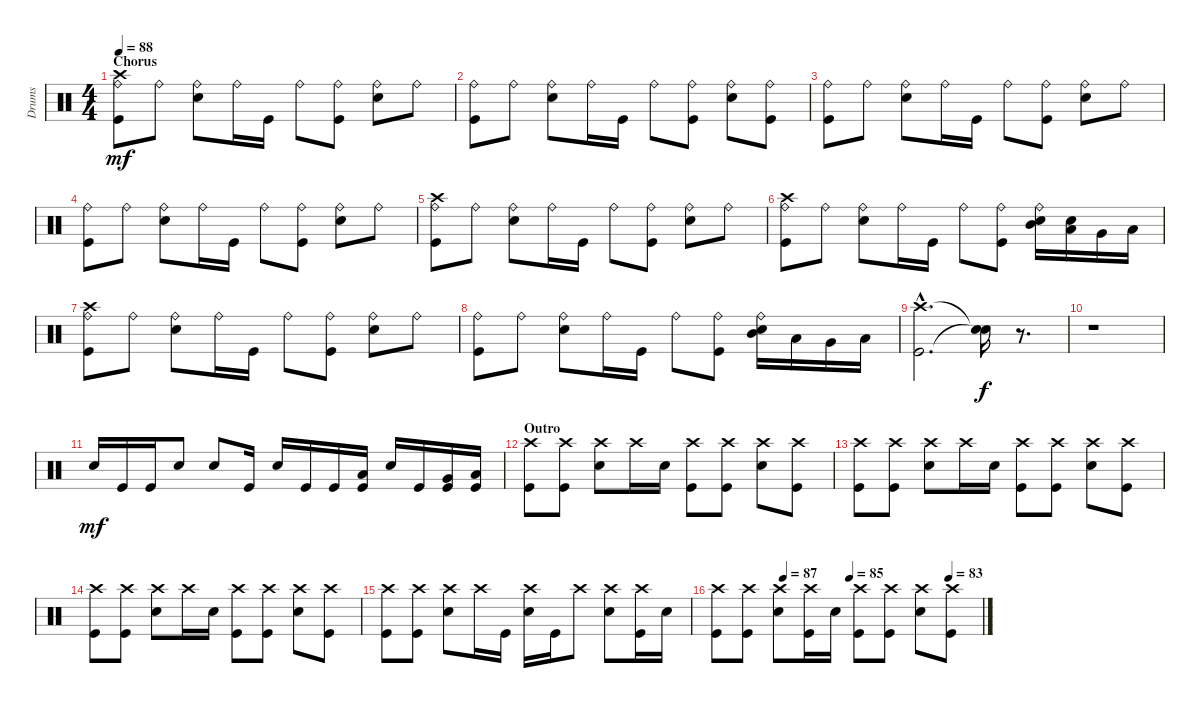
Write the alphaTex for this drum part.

\track ("Drums" "Drums") {instrument percussion}
\staff {score}
\articulation defaults
\ts (4 4)
\section ("" "Chorus")
\tempo 88
\clef neutral
\ks c
("Kick (hit)" "Crash high (hit)" "Ride (bell)").8{dy mf} "Ride (bell)".8 ("Electric Snare (hit)" "Ride (bell)").8 "Ride (bell)".16 "Kick (hit)".16 "Ride (bell)".8 ("Kick (hit)" "Ride (bell)").8 ("Electric Snare (hit)" "Ride (bell)").8 "Ride (bell)".8 |
("Ride (bell)" "Kick (hit)").8 "Ride (bell)".8 ("Electric Snare (hit)" "Ride (bell)").8 "Ride (bell)".16 "Kick (hit)".16 "Ride (bell)".8 ("Ride (bell)" "Kick (hit)").8 ("Ride (bell)" "Electric Snare (hit)").8 ("Ride (bell)" "Kick (hit)").8 |
("Kick (hit)" "Ride (bell)").8 "Ride (bell)".8 ("Electric Snare (hit)" "Ride (bell)").8 "Ride (bell)".16 "Kick (hit)".16 "Ride (bell)".8 ("Kick (hit)" "Ride (bell)").8 ("Ride (bell)" "Electric Snare (hit)").8 "Ride (bell)".8 |
("Ride (bell)" "Kick (hit)").8 "Ride (bell)".8 ("Electric Snare (hit)" "Ride (bell)").8 "Ride (bell)".16 "Kick (hit)".16 "Ride (bell)".8 ("Kick (hit)" "Ride (bell)").8 ("Electric Snare (hit)" "Ride (bell)").8 "Ride (bell)".8 |
("Crash high (hit)" "Ride (bell)" "Kick (hit)").8 "Ride (bell)".8 ("Electric Snare (hit)" "Ride (bell)").8 "Ride (bell)".16 "Kick (hit)".16 "Ride (bell)".8 ("Ride (bell)" "Kick (hit)").8 ("Ride (bell)" "Electric Snare (hit)").8 "Ride (bell)".8 |
("Crash high (hit)" "Kick (hit)" "Ride (bell)").8 "Ride (bell)".8 ("Electric Snare (hit)" "Ride (bell)").8 "Ride (bell)".16 "Kick (hit)".16 "Ride (bell)".8 ("Ride (bell)" "Kick (hit)").8 ("Mid Tom (hit)" "Electric Snare (hit)" "Ride (bell)").16 ("Electric Snare (hit)" "Low Tom (hit)").16 "Very Low Tom (hit)".16 "Low Floor Tom (hit)".16 |
("Kick (hit)" "Ride (bell)" "Crash high (hit)").8 "Ride (bell)".8 ("Ride (bell)" "Electric Snare (hit)").8 "Ride (bell)".16 "Kick (hit)".16 "Ride (bell)".8 ("Ride (bell)" "Kick (hit)").8 ("Ride (bell)" "Electric Snare (hit)").8 "Ride (bell)".8 |
("Ride (bell)" "Kick (hit)").8 "Ride (bell)".8 ("Electric Snare (hit)" "Ride (bell)").8 "Ride (bell)".16 "Kick (hit)".16 "Ride (bell)".8 ("Ride (bell)" "Kick (hit)").8 ("Ride (bell)" "Electric Snare (hit)" "Mid Tom (hit)").16 "Low Tom (hit)".16 "Very Low Tom (hit)".16 "Low Floor Tom (hit)".16 |
("Crash high (hit)"{hac} "Kick (hit)"{hac}).2{d} ("Snare (hit)"{t} "Snare (hit)"{t}).16{dy f} r.8{d} |
r.1 |
"Electric Snare (hit)".16{dy mf} "Kick (hit)".16 "Kick (hit)".16 "Electric Snare (hit)".8 "Electric Snare (hit)".8 "Kick (hit)".16 "Electric Snare (hit)".16 "Kick (hit)".16 "Kick (hit)".16 ("Low Floor Tom (hit)" "Kick (hit)").16 "Electric Snare (hit)".16 "Kick (hit)".16 ("Very Low Tom (hit)" "Kick (hit)").16 ("Kick (hit)" "Low Floor Tom (hit)").16 |
\section ("" "Outro")
("Kick (hit)" "Crash high (hit)").8 ("Kick (hit)" "Crash high (hit)").8 ("Electric Snare (hit)" "Crash high (hit)").8 "Crash high (hit)".16 "Electric Snare (hit)".16 ("Kick (hit)" "Crash high (hit)").8 ("Crash high (hit)" "Kick (hit)").8 ("Electric Snare (hit)" "Crash high (hit)").8 ("Kick (hit)" "Crash high (hit)").8 |
("Kick (hit)" "Crash high (hit)").8 ("Crash high (hit)" "Kick (hit)").8 ("Electric Snare (hit)" "Crash high (hit)").8 "Crash high (hit)".16 "Electric Snare (hit)".16 ("Crash high (hit)" "Kick (hit)").8 ("Crash high (hit)" "Kick (hit)").8 ("Electric Snare (hit)" "Crash high (hit)").8 ("Kick (hit)" "Crash high (hit)").8 |
("Kick (hit)" "Crash high (hit)").8 ("Kick (hit)" "Crash high (hit)").8 ("Electric Snare (hit)" "Crash high (hit)").8 "Crash high (hit)".16 "Electric Snare (hit)".16 ("Crash high (hit)" "Kick (hit)").8 ("Crash high (hit)" "Kick (hit)").8 ("Electric Snare (hit)" "Crash high (hit)").8 ("Crash high (hit)" "Kick (hit)").8 |
("Kick (hit)" "Crash high (hit)").8 ("Crash high (hit)" "Kick (hit)").8 ("Electric Snare (hit)" "Crash high (hit)").8 "Crash high (hit)".16 "Kick (hit)".16 ("Crash high (hit)" "Electric Snare (hit)").16 "Kick (hit)".16 "Crash high (hit)".8 ("Crash high (hit)" "Electric Snare (hit)").8 ("Kick (hit)" "Crash high (hit)").16 "Electric Snare (hit)".16 |
\tempo (87 0.25)
\tempo (85 0.5)
\tempo (83 0.875)
("Kick (hit)" "Crash high (hit)").8 ("Crash high (hit)" "Kick (hit)").8 ("Electric Snare (hit)" "Crash high (hit)").8 ("Crash high (hit)" "Kick (hit)").16 "Electric Snare (hit)".16 ("Crash high (hit)" "Kick (hit)").8 ("Kick (hit)" "Crash high (hit)").8 ("Crash high (hit)" "Electric Snare (hit)").8 ("Kick (hit)" "Crash high (hit)").8
